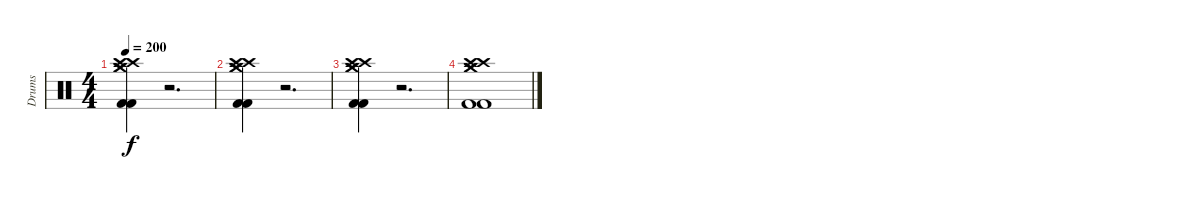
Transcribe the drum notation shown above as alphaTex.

\track ("Drums" "Drums") {instrument percussion}
\staff {score}
\articulation defaults
\ts (4 4)
\tempo 200
\clef neutral
\ks c
("Crash high (hit)" "Crash high (hit)" "Crash medium (hit)" "Crash medium (hit)" "Kick (hit) 2" "Kick (hit) 2").4{dy f volume 13} r.2{d volume 0} |
("Crash high (hit)" "Crash high (hit)" "Crash medium (hit)" "Crash medium (hit)" "Kick (hit) 2" "Kick (hit) 2").4{volume 13} r.2{d volume 0} |
("Crash high (hit)" "Crash high (hit)" "Crash medium (hit)" "Crash medium (hit)" "Kick (hit) 2" "Kick (hit) 2").4{volume 13} r.2{d volume 0} |
("Crash high (hit)" "Crash high (hit)" "Crash medium (hit)" "Crash medium (hit)" "Kick (hit) 2" "Kick (hit) 2").1{volume 13}
